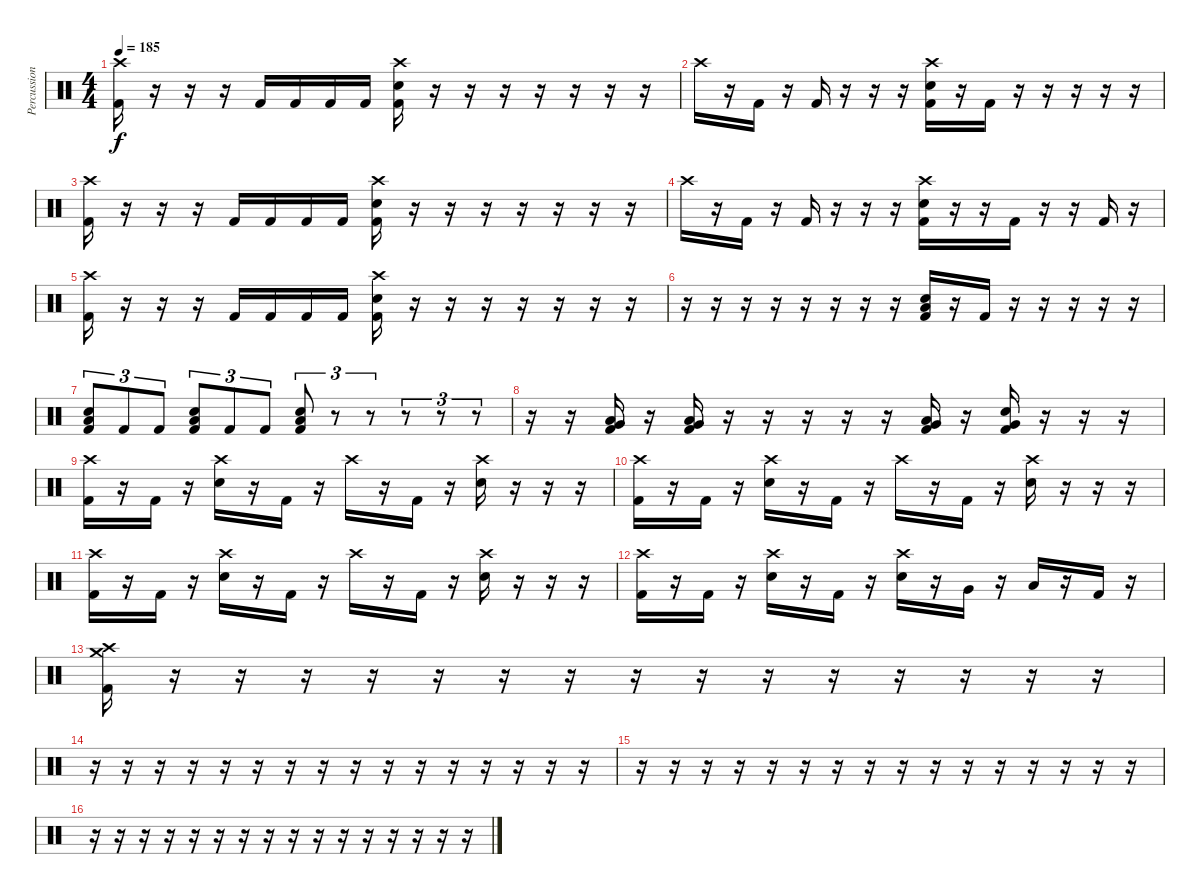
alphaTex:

\track ("Percussion" "Percussion") {instrument percussion}
\staff {score}
\articulation defaults
\ts (4 4)
\tempo 185
\clef neutral
\ks c
("Crash high (hit)" "Kick (hit) 2").16{dy f} r.16 r.16 r.16 "Kick (hit) 2".16 "Kick (hit) 2".16 "Kick (hit) 2".16 "Kick (hit) 2".16 ("Crash high (hit)" "Electric Snare (hit)" "Kick (hit) 2").16 r.16 r.16 r.16 r.16 r.16 r.16 r.16 |
"Crash high (hit)".16 r.16 "Kick (hit) 2".16 r.16 "Kick (hit) 2".16 r.16 r.16 r.16 ("Crash high (hit)" "Electric Snare (hit)" "Kick (hit) 2").16 r.16 "Kick (hit) 2".16 r.16 r.16 r.16 r.16 r.16 |
("Crash high (hit)" "Kick (hit) 2").16 r.16 r.16 r.16 "Kick (hit) 2".16 "Kick (hit) 2".16 "Kick (hit) 2".16 "Kick (hit) 2".16 ("Crash high (hit)" "Electric Snare (hit)" "Kick (hit) 2").16 r.16 r.16 r.16 r.16 r.16 r.16 r.16 |
"Crash high (hit)".16 r.16 "Kick (hit) 2".16 r.16 "Kick (hit) 2".16 r.16 r.16 r.16 ("Crash high (hit)" "Electric Snare (hit)" "Kick (hit) 2").16 r.16 r.16 "Kick (hit) 2".16 r.16 r.16 "Kick (hit) 2".16 r.16 |
("Crash high (hit)" "Kick (hit) 2").16 r.16 r.16 r.16 "Kick (hit) 2".16 "Kick (hit) 2".16 "Kick (hit) 2".16 "Kick (hit) 2".16 ("Crash high (hit)" "Electric Snare (hit)" "Kick (hit) 2").16 r.16 r.16 r.16 r.16 r.16 r.16 r.16 |
r.16 r.16 r.16 r.16 r.16 r.16 r.16 r.16 ("Low Floor Tom (hit)" "Electric Snare (hit)" "Kick (hit) 2").16 r.16 "Kick (hit) 2".16 r.16 r.16 r.16 r.16 r.16 |
("Low Floor Tom (hit)" "Electric Snare (hit)" "Kick (hit) 2").8{tu (3 2)} "Kick (hit) 2".8{tu (3 2)} "Kick (hit) 2".8{tu (3 2)} ("Low Floor Tom (hit)" "Electric Snare (hit)" "Kick (hit) 2").8{tu (3 2)} "Kick (hit) 2".8{tu (3 2)} "Kick (hit) 2".8{tu (3 2)} ("Low Floor Tom (hit)" "Electric Snare (hit)" "Kick (hit) 2").8{tu (3 2)} r.8{tu (3 2)} r.8{tu (3 2)} r.8{tu (3 2)} r.8{tu (3 2)} r.8{tu (3 2)} |
r.16 r.16 ("Very Low Tom (hit)" "Low Floor Tom (hit)" "Kick (hit) 2").16 r.16 ("Very Low Tom (hit)" "Low Floor Tom (hit)" "Kick (hit) 2").16 r.16 r.16 r.16 r.16 r.16 ("Very Low Tom (hit)" "Low Floor Tom (hit)" "Kick (hit) 2").16 r.16 ("Very Low Tom (hit)" "Electric Snare (hit)" "Kick (hit) 2").16 r.16 r.16 r.16 |
("Crash high (hit)" "Kick (hit) 2").16 r.16 "Kick (hit) 2".16 r.16 ("Crash high (hit)" "Electric Snare (hit)").16 r.16 "Kick (hit) 2".16 r.16 "Crash high (hit)".16 r.16 "Kick (hit) 2".16 r.16 ("Crash high (hit)" "Electric Snare (hit)").16 r.16 r.16 r.16 |
("Crash high (hit)" "Kick (hit) 2").16 r.16 "Kick (hit) 2".16 r.16 ("Crash high (hit)" "Electric Snare (hit)").16 r.16 "Kick (hit) 2".16 r.16 "Crash high (hit)".16 r.16 "Kick (hit) 2".16 r.16 ("Crash high (hit)" "Electric Snare (hit)").16 r.16 r.16 r.16 |
("Crash high (hit)" "Kick (hit) 2").16 r.16 "Kick (hit) 2".16 r.16 ("Crash high (hit)" "Electric Snare (hit)").16 r.16 "Kick (hit) 2".16 r.16 "Crash high (hit)".16 r.16 "Kick (hit) 2".16 r.16 ("Crash high (hit)" "Electric Snare (hit)").16 r.16 r.16 r.16 |
("Crash high (hit)" "Kick (hit) 2").16 r.16 "Kick (hit) 2".16 r.16 ("Crash high (hit)" "Electric Snare (hit)").16 r.16 "Kick (hit) 2".16 r.16 ("Crash high (hit)" "Electric Snare (hit)").16 r.16 "Very Low Tom (hit)".16 r.16 "Low Floor Tom (hit)".16 r.16 "Kick (hit) 2".16 r.16 |
("Crash high (hit)" "Crash medium (hit)" "Kick (hit) 2").16 r.16 r.16 r.16 r.16 r.16 r.16 r.16 r.16 r.16 r.16 r.16 r.16 r.16 r.16 r.16 |
r.16 r.16 r.16 r.16 r.16 r.16 r.16 r.16 r.16 r.16 r.16 r.16 r.16 r.16 r.16 r.16 |
r.16 r.16 r.16 r.16 r.16 r.16 r.16 r.16 r.16 r.16 r.16 r.16 r.16 r.16 r.16 r.16 |
r.16 r.16 r.16 r.16 r.16 r.16 r.16 r.16 r.16 r.16 r.16 r.16 r.16 r.16 r.16 r.16
